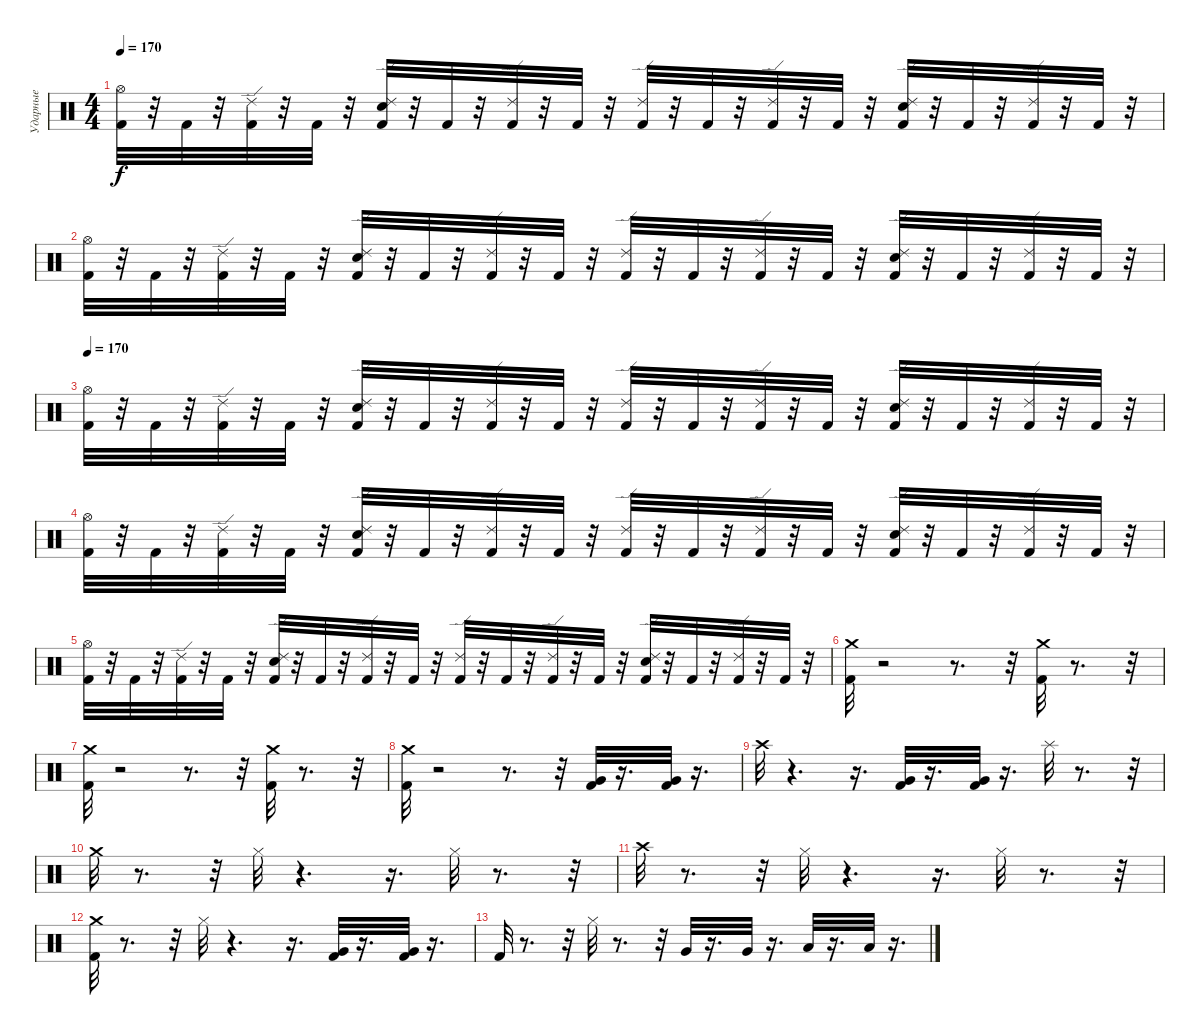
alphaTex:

\track ("Ударные" "Ударные") {instrument percussion}
\staff {score}
\articulation defaults
\ts (4 4)
\tempo 170
\clef neutral
\ks c
("Hi-Hat (open)" "Kick (hit) 2").32{dy f} r.32 "Kick (hit) 2".32 r.32 ("Ride (edge) 2" "Kick (hit) 2").32 r.32 "Kick (hit) 2".32 r.32 ("Ride (edge) 2" "Electric Snare (hit)" "Kick (hit) 2").32 r.32 "Kick (hit) 2".32 r.32 ("Ride (edge) 2" "Kick (hit) 2").32 r.32 "Kick (hit) 2".32 r.32 ("Ride (edge) 2" "Kick (hit) 2").32 r.32 "Kick (hit) 2".32 r.32 ("Ride (edge) 2" "Kick (hit) 2").32 r.32 "Kick (hit) 2".32 r.32 ("Ride (edge) 2" "Electric Snare (hit)" "Kick (hit) 2").32 r.32 "Kick (hit) 2".32 r.32 ("Ride (edge) 2" "Kick (hit) 2").32 r.32 "Kick (hit) 2".32 r.32 |
("Hi-Hat (open)" "Kick (hit) 2").32 r.32 "Kick (hit) 2".32 r.32 ("Ride (edge) 2" "Kick (hit) 2").32 r.32 "Kick (hit) 2".32 r.32 ("Ride (edge) 2" "Electric Snare (hit)" "Kick (hit) 2").32 r.32 "Kick (hit) 2".32 r.32 ("Ride (edge) 2" "Kick (hit) 2").32 r.32 "Kick (hit) 2".32 r.32 ("Ride (edge) 2" "Kick (hit) 2").32 r.32 "Kick (hit) 2".32 r.32 ("Ride (edge) 2" "Kick (hit) 2").32 r.32 "Kick (hit) 2".32 r.32 ("Ride (edge) 2" "Electric Snare (hit)" "Kick (hit) 2").32 r.32 "Kick (hit) 2".32 r.32 ("Ride (edge) 2" "Kick (hit) 2").32 r.32 "Kick (hit) 2".32 r.32 |
\tempo 170
("Hi-Hat (open)" "Kick (hit) 2").32 r.32 "Kick (hit) 2".32 r.32 ("Ride (edge) 2" "Kick (hit) 2").32 r.32 "Kick (hit) 2".32 r.32 ("Ride (edge) 2" "Electric Snare (hit)" "Kick (hit) 2").32 r.32 "Kick (hit) 2".32 r.32 ("Ride (edge) 2" "Kick (hit) 2").32 r.32 "Kick (hit) 2".32 r.32 ("Ride (edge) 2" "Kick (hit) 2").32 r.32 "Kick (hit) 2".32 r.32 ("Ride (edge) 2" "Kick (hit) 2").32 r.32 "Kick (hit) 2".32 r.32 ("Ride (edge) 2" "Electric Snare (hit)" "Kick (hit) 2").32 r.32 "Kick (hit) 2".32 r.32 ("Ride (edge) 2" "Kick (hit) 2").32 r.32 "Kick (hit) 2".32 r.32 |
("Hi-Hat (open)" "Kick (hit) 2").32 r.32 "Kick (hit) 2".32 r.32 ("Ride (edge) 2" "Kick (hit) 2").32 r.32 "Kick (hit) 2".32 r.32 ("Ride (edge) 2" "Electric Snare (hit)" "Kick (hit) 2").32 r.32 "Kick (hit) 2".32 r.32 ("Ride (edge) 2" "Kick (hit) 2").32 r.32 "Kick (hit) 2".32 r.32 ("Ride (edge) 2" "Kick (hit) 2").32 r.32 "Kick (hit) 2".32 r.32 ("Ride (edge) 2" "Kick (hit) 2").32 r.32 "Kick (hit) 2".32 r.32 ("Ride (edge) 2" "Electric Snare (hit)" "Kick (hit) 2").32 r.32 "Kick (hit) 2".32 r.32 ("Ride (edge) 2" "Kick (hit) 2").32 r.32 "Kick (hit) 2".32 r.32 |
("Hi-Hat (open)" "Kick (hit) 2").32 r.32 "Kick (hit) 2".32 r.32 ("Ride (edge) 2" "Kick (hit) 2").32 r.32 "Kick (hit) 2".32 r.32 ("Ride (edge) 2" "Electric Snare (hit)" "Kick (hit) 2").32 r.32 "Kick (hit) 2".32 r.32 ("Ride (edge) 2" "Kick (hit) 2").32 r.32 "Kick (hit) 2".32 r.32 ("Ride (edge) 2" "Kick (hit) 2").32 r.32 "Kick (hit) 2".32 r.32 ("Ride (edge) 2" "Kick (hit) 2").32 r.32 "Kick (hit) 2".32 r.32 ("Ride (edge) 2" "Electric Snare (hit)" "Kick (hit) 2").32 r.32 "Kick (hit) 2".32 r.32 ("Ride (edge) 2" "Kick (hit) 2").32 r.32 "Kick (hit) 2".32 r.32 |
("Kick (hit) 2" "Crash medium (hit)").32 r.2 r.8{d} r.32 ("Kick (hit) 2" "Crash medium (hit)").32 r.8{d} r.32 |
("Kick (hit) 2" "Crash medium (hit)").32 r.2 r.8{d} r.32 ("Kick (hit) 2" "Crash medium (hit)").32 r.8{d} r.32 |
("Kick (hit) 2" "Crash medium (hit)").32 r.2 r.8{d} r.32 ("Kick (hit) 2" "Very Low Tom (hit)").32 r.16{d} ("Kick (hit) 2" "Very Low Tom (hit)").32 r.16{d} |
"Crash high (hit)".32 r.4{d} r.16{d} ("Kick (hit) 2" "Very Low Tom (hit)").32 r.16{d} ("Kick (hit) 2" "Very Low Tom (hit)").32 r.16{d} "Splash (hit)".32 r.8{d} r.32 |
"Crash medium (hit)".32 r.8{d} r.32 "Hi-Hat (closed)".32 r.4{d} r.16{d} "Hi-Hat (closed)".32 r.8{d} r.32 |
"Crash high (hit)".32 r.8{d} r.32 "Hi-Hat (closed)".32 r.4{d} r.16{d} "Hi-Hat (closed)".32 r.8{d} r.32 |
("Kick (hit) 2" "Crash medium (hit)").32 r.8{d} r.32 "Hi-Hat (closed)".32 r.4{d} r.16{d} ("Kick (hit) 2" "Very Low Tom (hit)").32 r.16{d} ("Kick (hit) 2" "Very Low Tom (hit)").32 r.16{d} |
"Kick (hit) 2".32 r.8{d} r.32 "Hi-Hat (closed)".32 r.8{d} r.32 "Very Low Tom (hit)".32 r.16{d} "Very Low Tom (hit)".32 r.16{d} "Low Tom (hit)".32 r.16{d} "Low Tom (hit)".32 r.16{d}
